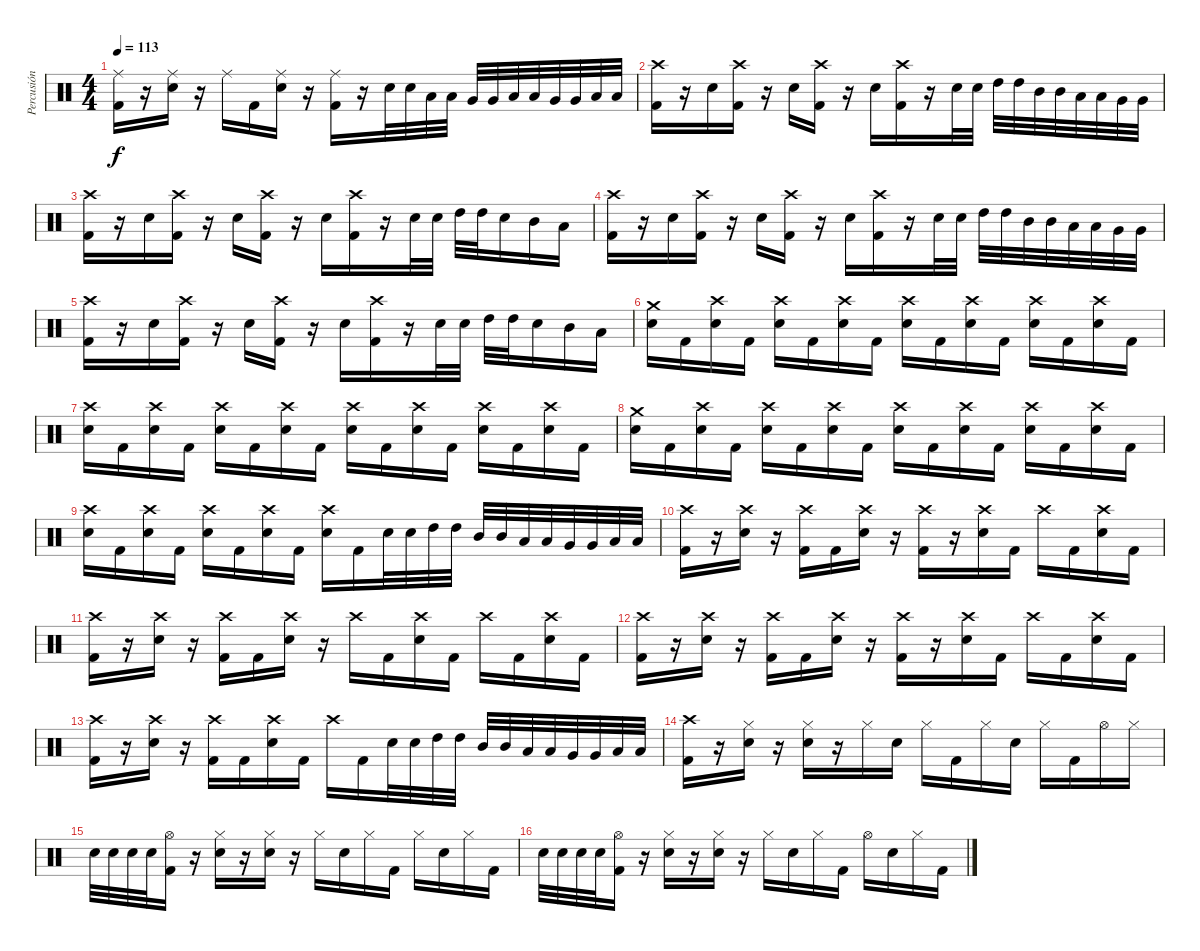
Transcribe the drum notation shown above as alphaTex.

\track ("Percusión" "Percusión") {instrument percussion}
\staff {score}
\articulation defaults
\ts (4 4)
\tempo 113
\clef neutral
\ks c
("Ride (middle)" "Kick (hit) 2").16{dy f} r.16 ("Ride (middle)" "Electric Snare (hit)").16 r.16 "Ride (middle)".16 "Kick (hit) 2".16 ("Ride (middle)" "Electric Snare (hit)").16 r.16 ("Ride (middle)" "Kick (hit) 2").16 r.16 "Electric Snare (hit)".32 "Electric Snare (hit)".32 "Low Tom (hit)".32 "Low Tom (hit)".32 "Very Low Tom (hit)".32 "Very Low Tom (hit)".32 "Low Floor Tom (hit)".32 "Low Floor Tom (hit)".32 "Very Low Tom (hit)".32 "Very Low Tom (hit)".32 "Low Tom (hit)".32 "Low Tom (hit)".32 |
("Crash high (hit)" "Kick (hit) 2").16 r.16 "Electric Snare (hit)".16 ("Crash high (hit)" "Kick (hit) 2").16 r.16 "Electric Snare (hit)".16 ("Crash high (hit)" "Kick (hit) 2").16 r.16 "Electric Snare (hit)".16 ("Crash high (hit)" "Kick (hit) 2").16 r.16 "Electric Snare (hit)".32 "Electric Snare (hit)".32 "High Tom (hit)".32 "High Tom (hit)".32 "Mid Tom (hit)".32 "Mid Tom (hit)".32 "Low Tom (hit)".32 "Low Tom (hit)".32 "Very Low Tom (hit)".32 "Very Low Tom (hit)".32 |
("Crash high (hit)" "Kick (hit) 2").16 r.16 "Electric Snare (hit)".16 ("Crash high (hit)" "Kick (hit) 2").16 r.16 "Electric Snare (hit)".16 ("Crash high (hit)" "Kick (hit) 2").16 r.16 "Electric Snare (hit)".16 ("Crash high (hit)" "Kick (hit) 2").16 r.16 "Electric Snare (hit)".32 "Electric Snare (hit)".32 "High Tom (hit)".32 "High Tom (hit)".32 "Electric Snare (hit)".16 "Mid Tom (hit)".16 "Low Tom (hit)".16 |
("Crash high (hit)" "Kick (hit) 2").16 r.16 "Electric Snare (hit)".16 ("Crash high (hit)" "Kick (hit) 2").16 r.16 "Electric Snare (hit)".16 ("Crash high (hit)" "Kick (hit) 2").16 r.16 "Electric Snare (hit)".16 ("Crash high (hit)" "Kick (hit) 2").16 r.16 "Electric Snare (hit)".32 "Electric Snare (hit)".32 "High Tom (hit)".32 "High Tom (hit)".32 "Mid Tom (hit)".32 "Mid Tom (hit)".32 "Low Tom (hit)".32 "Low Tom (hit)".32 "Very Low Tom (hit)".32 "Very Low Tom (hit)".32 |
("Crash high (hit)" "Kick (hit) 2").16 r.16 "Electric Snare (hit)".16 ("Crash high (hit)" "Kick (hit) 2").16 r.16 "Electric Snare (hit)".16 ("Crash high (hit)" "Kick (hit) 2").16 r.16 "Electric Snare (hit)".16 ("Crash high (hit)" "Kick (hit) 2").16 r.16 "Electric Snare (hit)".32 "Electric Snare (hit)".32 "High Tom (hit)".32 "High Tom (hit)".32 "Electric Snare (hit)".16 "Mid Tom (hit)".16 "Low Tom (hit)".16 |
("Crash medium (hit)" "Electric Snare (hit)").16 "Kick (hit) 2".16 ("Crash high (hit)" "Electric Snare (hit)").16 "Kick (hit) 2".16 ("Crash high (hit)" "Electric Snare (hit)").16 "Kick (hit) 2".16 ("Crash high (hit)" "Electric Snare (hit)").16 "Kick (hit) 2".16 ("Crash high (hit)" "Electric Snare (hit)").16 "Kick (hit) 2".16 ("Crash high (hit)" "Electric Snare (hit)").16 "Kick (hit) 2".16 ("Crash high (hit)" "Electric Snare (hit)").16 "Kick (hit) 2".16 ("Crash high (hit)" "Electric Snare (hit)").16 "Kick (hit) 2".16 |
("Crash high (hit)" "Electric Snare (hit)").16 "Kick (hit) 2".16 ("Crash high (hit)" "Electric Snare (hit)").16 "Kick (hit) 2".16 ("Crash high (hit)" "Electric Snare (hit)").16 "Kick (hit) 2".16 ("Crash high (hit)" "Electric Snare (hit)").16 "Kick (hit) 2".16 ("Crash high (hit)" "Electric Snare (hit)").16 "Kick (hit) 2".16 ("Crash high (hit)" "Electric Snare (hit)").16 "Kick (hit) 2".16 ("Crash high (hit)" "Electric Snare (hit)").16 "Kick (hit) 2".16 ("Crash high (hit)" "Electric Snare (hit)").16 "Kick (hit) 2".16 |
("Crash medium (hit)" "Electric Snare (hit)").16 "Kick (hit) 2".16 ("Crash high (hit)" "Electric Snare (hit)").16 "Kick (hit) 2".16 ("Crash high (hit)" "Electric Snare (hit)").16 "Kick (hit) 2".16 ("Crash high (hit)" "Electric Snare (hit)").16 "Kick (hit) 2".16 ("Crash high (hit)" "Electric Snare (hit)").16 "Kick (hit) 2".16 ("Crash high (hit)" "Electric Snare (hit)").16 "Kick (hit) 2".16 ("Crash high (hit)" "Electric Snare (hit)").16 "Kick (hit) 2".16 ("Crash high (hit)" "Electric Snare (hit)").16 "Kick (hit) 2".16 |
("Crash high (hit)" "Electric Snare (hit)").16 "Kick (hit) 2".16 ("Crash high (hit)" "Electric Snare (hit)").16 "Kick (hit) 2".16 ("Crash high (hit)" "Electric Snare (hit)").16 "Kick (hit) 2".16 ("Crash high (hit)" "Electric Snare (hit)").16 "Kick (hit) 2".16 ("Crash high (hit)" "Electric Snare (hit)").16 "Kick (hit) 2".16 "Electric Snare (hit)".32 "Electric Snare (hit)".32 "High Tom (hit)".32 "High Tom (hit)".32 "Mid Tom (hit)".32 "Mid Tom (hit)".32 "Low Tom (hit)".32 "Low Tom (hit)".32 "Very Low Tom (hit)".32 "Very Low Tom (hit)".32 "Low Floor Tom (hit)".32 "Low Floor Tom (hit)".32 |
("Crash high (hit)" "Kick (hit) 2").16 r.16 ("Crash high (hit)" "Electric Snare (hit)").16 r.16 ("Crash high (hit)" "Kick (hit) 2").16 "Kick (hit) 2".16 ("Crash high (hit)" "Electric Snare (hit)").16 r.16 ("Crash high (hit)" "Kick (hit) 2").16 r.16 ("Crash high (hit)" "Electric Snare (hit)").16 "Kick (hit) 2".16 "Crash high (hit)".16 "Kick (hit) 2".16 ("Crash high (hit)" "Electric Snare (hit)").16 "Kick (hit) 2".16 |
("Crash high (hit)" "Kick (hit) 2").16 r.16 ("Crash high (hit)" "Electric Snare (hit)").16 r.16 ("Crash high (hit)" "Kick (hit) 2").16 "Kick (hit) 2".16 ("Crash high (hit)" "Electric Snare (hit)").16 r.16 "Crash high (hit)".16 "Kick (hit) 2".16 ("Crash high (hit)" "Electric Snare (hit)").16 "Kick (hit) 2".16 "Crash high (hit)".16 "Kick (hit) 2".16 ("Crash high (hit)" "Electric Snare (hit)").16 "Kick (hit) 2".16 |
("Crash high (hit)" "Kick (hit) 2").16 r.16 ("Crash high (hit)" "Electric Snare (hit)").16 r.16 ("Crash high (hit)" "Kick (hit) 2").16 "Kick (hit) 2".16 ("Crash high (hit)" "Electric Snare (hit)").16 r.16 ("Crash high (hit)" "Kick (hit) 2").16 r.16 ("Crash high (hit)" "Electric Snare (hit)").16 "Kick (hit) 2".16 "Crash high (hit)".16 "Kick (hit) 2".16 ("Crash high (hit)" "Electric Snare (hit)").16 "Kick (hit) 2".16 |
("Crash high (hit)" "Kick (hit) 2").16 r.16 ("Crash high (hit)" "Electric Snare (hit)").16 r.16 ("Crash high (hit)" "Kick (hit) 2").16 "Kick (hit) 2".16 ("Crash high (hit)" "Electric Snare (hit)").16 "Kick (hit) 2".16 "Crash high (hit)".16 "Kick (hit) 2".16 "Electric Snare (hit)".32 "Electric Snare (hit)".32 "High Tom (hit)".32 "High Tom (hit)".32 "Mid Tom (hit)".32 "Mid Tom (hit)".32 "Low Tom (hit)".32 "Low Tom (hit)".32 "Very Low Tom (hit)".32 "Very Low Tom (hit)".32 "Low Floor Tom (hit)".32 "Low Floor Tom (hit)".32 |
("Crash high (hit)" "Kick (hit) 2").16 r.16 ("Hi-Hat (closed)" "Electric Snare (hit)").16 r.16 ("Hi-Hat (closed)" "Electric Snare (hit)").16 r.16 "Hi-Hat (closed)".16 "Electric Snare (hit)".16 "Hi-Hat (closed)".16 "Kick (hit) 2".16 "Hi-Hat (closed)".16 "Electric Snare (hit)".16 "Hi-Hat (closed)".16 "Kick (hit) 2".16 "Hi-Hat (open)".16 "Hi-Hat (closed)".16 |
"Electric Snare (hit)".32 "Electric Snare (hit)".32 "Electric Snare (hit)".32 "Electric Snare (hit)".32 ("Hi-Hat (open)" "Kick (hit) 2").16 r.16 ("Hi-Hat (closed)" "Electric Snare (hit)").16 r.16 ("Hi-Hat (closed)" "Electric Snare (hit)").16 r.16 "Hi-Hat (closed)".16 "Electric Snare (hit)".16 "Hi-Hat (closed)".16 "Kick (hit) 2".16 "Hi-Hat (closed)".16 "Electric Snare (hit)".16 "Hi-Hat (closed)".16 "Kick (hit) 2".16 |
"Electric Snare (hit)".32 "Electric Snare (hit)".32 "Electric Snare (hit)".32 "Electric Snare (hit)".32 ("Hi-Hat (open)" "Kick (hit) 2").16 r.16 ("Hi-Hat (closed)" "Electric Snare (hit)").16 r.16 ("Hi-Hat (closed)" "Electric Snare (hit)").16 r.16 "Hi-Hat (closed)".16 "Electric Snare (hit)".16 "Hi-Hat (closed)".16 "Kick (hit) 2".16 "Hi-Hat (open)".16 "Electric Snare (hit)".16 "Hi-Hat (closed)".16 "Kick (hit) 2".16
